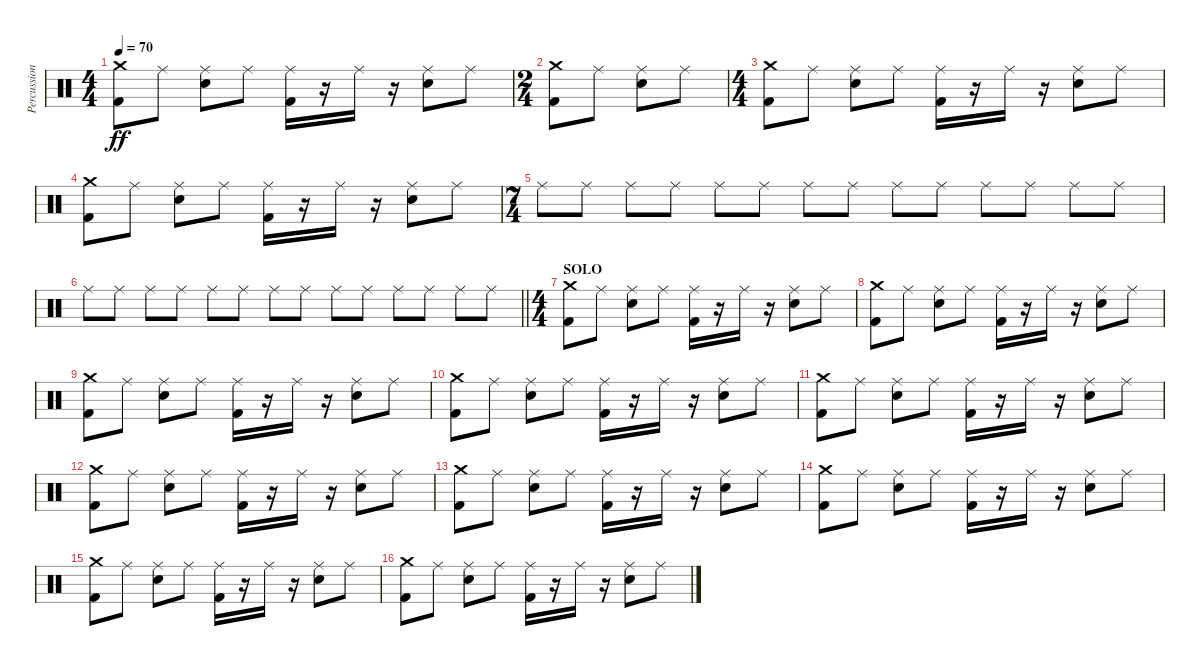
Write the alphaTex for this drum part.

\track ("Percussion" "Percussion") {instrument percussion}
\staff {score}
\articulation defaults
\ts (4 4)
\tempo 70
\clef neutral
\ks c
("Crash medium (hit)" "Kick (hit) 2").8{dy ff} "Ride (middle)".8 ("Ride (middle)" "Electric Snare (hit)").8 "Ride (middle)".8 ("Ride (middle)" "Kick (hit) 2").16 r.16 "Ride (middle)".16 r.16 ("Ride (middle)" "Electric Snare (hit)").8 "Ride (middle)".8 |
\ts (2 4)
("Crash medium (hit)" "Kick (hit) 2").8 "Ride (middle)".8 ("Ride (middle)" "Electric Snare (hit)").8 "Ride (middle)".8 |
\ts (4 4)
("Crash medium (hit)" "Kick (hit) 2").8 "Ride (middle)".8 ("Ride (middle)" "Electric Snare (hit)").8 "Ride (middle)".8 ("Ride (middle)" "Kick (hit) 2").16 r.16 "Ride (middle)".16 r.16 ("Ride (middle)" "Electric Snare (hit)").8 "Ride (middle)".8 |
("Crash medium (hit)" "Kick (hit) 2").8 "Ride (middle)".8 ("Ride (middle)" "Electric Snare (hit)").8 "Ride (middle)".8 ("Ride (middle)" "Kick (hit) 2").16 r.16 "Ride (middle)".16 r.16 ("Ride (middle)" "Electric Snare (hit)").8 "Ride (middle)".8 |
\ts (7 4)
"Ride (middle)".8 "Ride (middle)".8 "Ride (middle)".8 "Ride (middle)".8 "Ride (middle)".8 "Ride (middle)".8 "Ride (middle)".8 "Ride (middle)".8 "Ride (middle)".8 "Ride (middle)".8 "Ride (middle)".8 "Ride (middle)".8 "Ride (middle)".8 "Ride (middle)".8 |
\barLineRight lightlight "Ride (middle)".8 "Ride (middle)".8 "Ride (middle)".8 "Ride (middle)".8 "Ride (middle)".8 "Ride (middle)".8 "Ride (middle)".8 "Ride (middle)".8 "Ride (middle)".8 "Ride (middle)".8 "Ride (middle)".8 "Ride (middle)".8 "Ride (middle)".8 "Ride (middle)".8
|
\ts (4 4)
\section ("" "SOLO")
("Crash medium (hit)" "Kick (hit) 2").8 "Ride (middle)".8 ("Ride (middle)" "Electric Snare (hit)").8 "Ride (middle)".8 ("Ride (middle)" "Kick (hit) 2").16 r.16 "Ride (middle)".16 r.16 ("Ride (middle)" "Electric Snare (hit)").8 "Ride (middle)".8 |
("Crash medium (hit)" "Kick (hit) 2").8 "Ride (middle)".8 ("Ride (middle)" "Electric Snare (hit)").8 "Ride (middle)".8 ("Ride (middle)" "Kick (hit) 2").16 r.16 "Ride (middle)".16 r.16 ("Ride (middle)" "Electric Snare (hit)").8 "Ride (middle)".8 |
("Crash medium (hit)" "Kick (hit) 2").8 "Ride (middle)".8 ("Ride (middle)" "Electric Snare (hit)").8 "Ride (middle)".8 ("Ride (middle)" "Kick (hit) 2").16 r.16 "Ride (middle)".16 r.16 ("Ride (middle)" "Electric Snare (hit)").8 "Ride (middle)".8 |
("Crash medium (hit)" "Kick (hit) 2").8 "Ride (middle)".8 ("Ride (middle)" "Electric Snare (hit)").8 "Ride (middle)".8 ("Ride (middle)" "Kick (hit) 2").16 r.16 "Ride (middle)".16 r.16 ("Ride (middle)" "Electric Snare (hit)").8 "Ride (middle)".8 |
("Crash medium (hit)" "Kick (hit) 2").8 "Ride (middle)".8 ("Ride (middle)" "Electric Snare (hit)").8 "Ride (middle)".8 ("Ride (middle)" "Kick (hit) 2").16 r.16 "Ride (middle)".16 r.16 ("Ride (middle)" "Electric Snare (hit)").8 "Ride (middle)".8 |
("Crash medium (hit)" "Kick (hit) 2").8 "Ride (middle)".8 ("Ride (middle)" "Electric Snare (hit)").8 "Ride (middle)".8 ("Ride (middle)" "Kick (hit) 2").16 r.16 "Ride (middle)".16 r.16 ("Ride (middle)" "Electric Snare (hit)").8 "Ride (middle)".8 |
("Crash medium (hit)" "Kick (hit) 2").8 "Ride (middle)".8 ("Ride (middle)" "Electric Snare (hit)").8 "Ride (middle)".8 ("Ride (middle)" "Kick (hit) 2").16 r.16 "Ride (middle)".16 r.16 ("Ride (middle)" "Electric Snare (hit)").8 "Ride (middle)".8 |
("Crash medium (hit)" "Kick (hit) 2").8 "Ride (middle)".8 ("Ride (middle)" "Electric Snare (hit)").8 "Ride (middle)".8 ("Ride (middle)" "Kick (hit) 2").16 r.16 "Ride (middle)".16 r.16 ("Ride (middle)" "Electric Snare (hit)").8 "Ride (middle)".8 |
("Crash medium (hit)" "Kick (hit) 2").8 "Ride (middle)".8 ("Ride (middle)" "Electric Snare (hit)").8 "Ride (middle)".8 ("Ride (middle)" "Kick (hit) 2").16 r.16 "Ride (middle)".16 r.16 ("Ride (middle)" "Electric Snare (hit)").8 "Ride (middle)".8 |
("Crash medium (hit)" "Kick (hit) 2").8 "Ride (middle)".8 ("Ride (middle)" "Electric Snare (hit)").8 "Ride (middle)".8 ("Ride (middle)" "Kick (hit) 2").16 r.16 "Ride (middle)".16 r.16 ("Ride (middle)" "Electric Snare (hit)").8 "Ride (middle)".8
